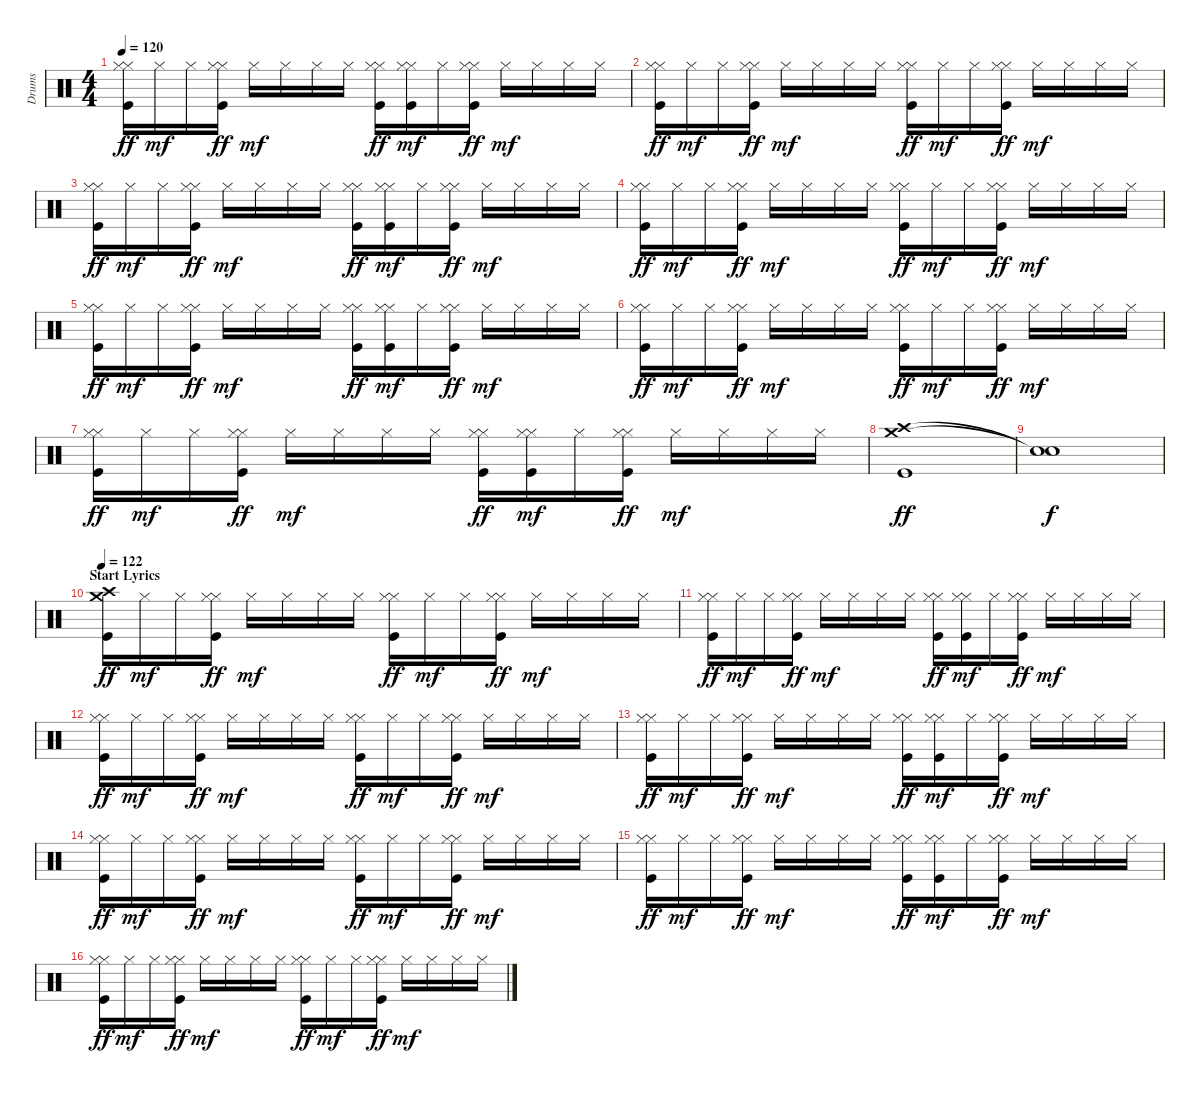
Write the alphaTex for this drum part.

\track ("Drums" "Drums") {instrument percussion}
\staff {score}
\articulation defaults
\ts (4 4)
\tempo 120
\clef neutral
\ks c
("Hi-Hat (closed)" "Hi-Hat (closed)" "Kick (hit)").16{dy ff} "Hi-Hat (closed)".16{dy mf} "Hi-Hat (closed)".16 ("Hi-Hat (closed)" "Hi-Hat (closed)" "Kick (hit)").16{dy ff} "Hi-Hat (closed)".16{dy mf} "Hi-Hat (closed)".16 "Hi-Hat (closed)".16 "Hi-Hat (closed)".16 ("Hi-Hat (closed)" "Hi-Hat (closed)" "Kick (hit)").16{dy ff} ("Hi-Hat (closed)" "Hi-Hat (closed)" "Kick (hit)").16{dy mf} "Hi-Hat (closed)".16 ("Hi-Hat (closed)" "Hi-Hat (closed)" "Kick (hit)").16{dy ff} "Hi-Hat (closed)".16{dy mf} "Hi-Hat (closed)".16 "Hi-Hat (closed)".16 "Hi-Hat (closed)".16 |
("Hi-Hat (closed)" "Hi-Hat (closed)" "Kick (hit)").16{dy ff} "Hi-Hat (closed)".16{dy mf} "Hi-Hat (closed)".16 ("Hi-Hat (closed)" "Hi-Hat (closed)" "Kick (hit)").16{dy ff} "Hi-Hat (closed)".16{dy mf} "Hi-Hat (closed)".16 "Hi-Hat (closed)".16 "Hi-Hat (closed)".16 ("Hi-Hat (closed)" "Hi-Hat (closed)" "Kick (hit)").16{dy ff} "Hi-Hat (closed)".16{dy mf} "Hi-Hat (closed)".16 ("Hi-Hat (closed)" "Hi-Hat (closed)" "Kick (hit)").16{dy ff} "Hi-Hat (closed)".16{dy mf} "Hi-Hat (closed)".16 "Hi-Hat (closed)".16 "Hi-Hat (closed)".16 |
("Hi-Hat (closed)" "Hi-Hat (closed)" "Kick (hit)").16{dy ff} "Hi-Hat (closed)".16{dy mf} "Hi-Hat (closed)".16 ("Hi-Hat (closed)" "Hi-Hat (closed)" "Kick (hit)").16{dy ff} "Hi-Hat (closed)".16{dy mf} "Hi-Hat (closed)".16 "Hi-Hat (closed)".16 "Hi-Hat (closed)".16 ("Hi-Hat (closed)" "Hi-Hat (closed)" "Kick (hit)").16{dy ff} ("Hi-Hat (closed)" "Hi-Hat (closed)" "Kick (hit)").16{dy mf} "Hi-Hat (closed)".16 ("Hi-Hat (closed)" "Hi-Hat (closed)" "Kick (hit)").16{dy ff} "Hi-Hat (closed)".16{dy mf} "Hi-Hat (closed)".16 "Hi-Hat (closed)".16 "Hi-Hat (closed)".16 |
("Hi-Hat (closed)" "Hi-Hat (closed)" "Kick (hit)").16{dy ff} "Hi-Hat (closed)".16{dy mf} "Hi-Hat (closed)".16 ("Hi-Hat (closed)" "Hi-Hat (closed)" "Kick (hit)").16{dy ff} "Hi-Hat (closed)".16{dy mf} "Hi-Hat (closed)".16 "Hi-Hat (closed)".16 "Hi-Hat (closed)".16 ("Hi-Hat (closed)" "Hi-Hat (closed)" "Kick (hit)").16{dy ff} "Hi-Hat (closed)".16{dy mf} "Hi-Hat (closed)".16 ("Hi-Hat (closed)" "Hi-Hat (closed)" "Kick (hit)").16{dy ff} "Hi-Hat (closed)".16{dy mf} "Hi-Hat (closed)".16 "Hi-Hat (closed)".16 "Hi-Hat (closed)".16 |
("Hi-Hat (closed)" "Hi-Hat (closed)" "Kick (hit)").16{dy ff} "Hi-Hat (closed)".16{dy mf} "Hi-Hat (closed)".16 ("Hi-Hat (closed)" "Hi-Hat (closed)" "Kick (hit)").16{dy ff} "Hi-Hat (closed)".16{dy mf} "Hi-Hat (closed)".16 "Hi-Hat (closed)".16 "Hi-Hat (closed)".16 ("Hi-Hat (closed)" "Hi-Hat (closed)" "Kick (hit)").16{dy ff} ("Hi-Hat (closed)" "Hi-Hat (closed)" "Kick (hit)").16{dy mf} "Hi-Hat (closed)".16 ("Hi-Hat (closed)" "Hi-Hat (closed)" "Kick (hit)").16{dy ff} "Hi-Hat (closed)".16{dy mf} "Hi-Hat (closed)".16 "Hi-Hat (closed)".16 "Hi-Hat (closed)".16 |
("Hi-Hat (closed)" "Hi-Hat (closed)" "Kick (hit)").16{dy ff} "Hi-Hat (closed)".16{dy mf} "Hi-Hat (closed)".16 ("Hi-Hat (closed)" "Hi-Hat (closed)" "Kick (hit)").16{dy ff} "Hi-Hat (closed)".16{dy mf} "Hi-Hat (closed)".16 "Hi-Hat (closed)".16 "Hi-Hat (closed)".16 ("Hi-Hat (closed)" "Hi-Hat (closed)" "Kick (hit)").16{dy ff} "Hi-Hat (closed)".16{dy mf} "Hi-Hat (closed)".16 ("Hi-Hat (closed)" "Hi-Hat (closed)" "Kick (hit)").16{dy ff} "Hi-Hat (closed)".16{dy mf} "Hi-Hat (closed)".16 "Hi-Hat (closed)".16 "Hi-Hat (closed)".16 |
("Hi-Hat (closed)" "Hi-Hat (closed)" "Kick (hit)").16{dy ff} "Hi-Hat (closed)".16{dy mf} "Hi-Hat (closed)".16 ("Hi-Hat (closed)" "Hi-Hat (closed)" "Kick (hit)").16{dy ff} "Hi-Hat (closed)".16{dy mf} "Hi-Hat (closed)".16 "Hi-Hat (closed)".16 "Hi-Hat (closed)".16 ("Hi-Hat (closed)" "Hi-Hat (closed)" "Kick (hit)").16{dy ff} ("Hi-Hat (closed)" "Hi-Hat (closed)" "Kick (hit)").16{dy mf} "Hi-Hat (closed)".16 ("Hi-Hat (closed)" "Hi-Hat (closed)" "Kick (hit)").16{dy ff} "Hi-Hat (closed)".16{dy mf} "Hi-Hat (closed)".16 "Hi-Hat (closed)".16 "Hi-Hat (closed)".16 |
("Crash high (hit)" "Crash medium (hit)" "Kick (hit)").1{dy ff} |
("Snare (hit)"{t} "Snare (hit)"{t}).1{dy f} |
\section ("" "Start Lyrics")
\tempo 122
("Crash high (hit)" "Crash medium (hit)" "Kick (hit)").16{dy ff} "Hi-Hat (closed)".16{dy mf} "Hi-Hat (closed)".16 ("Hi-Hat (closed)" "Hi-Hat (closed)" "Kick (hit)").16{dy ff} "Hi-Hat (closed)".16{dy mf} "Hi-Hat (closed)".16 "Hi-Hat (closed)".16 "Hi-Hat (closed)".16 ("Hi-Hat (closed)" "Hi-Hat (closed)" "Kick (hit)").16{dy ff} "Hi-Hat (closed)".16{dy mf} "Hi-Hat (closed)".16 ("Hi-Hat (closed)" "Hi-Hat (closed)" "Kick (hit)").16{dy ff} "Hi-Hat (closed)".16{dy mf} "Hi-Hat (closed)".16 "Hi-Hat (closed)".16 "Hi-Hat (closed)".16 |
("Hi-Hat (closed)" "Hi-Hat (closed)" "Kick (hit)").16{dy ff} "Hi-Hat (closed)".16{dy mf} "Hi-Hat (closed)".16 ("Hi-Hat (closed)" "Hi-Hat (closed)" "Kick (hit)").16{dy ff} "Hi-Hat (closed)".16{dy mf} "Hi-Hat (closed)".16 "Hi-Hat (closed)".16 "Hi-Hat (closed)".16 ("Hi-Hat (closed)" "Hi-Hat (closed)" "Kick (hit)").16{dy ff} ("Hi-Hat (closed)" "Hi-Hat (closed)" "Kick (hit)").16{dy mf} "Hi-Hat (closed)".16 ("Hi-Hat (closed)" "Hi-Hat (closed)" "Kick (hit)").16{dy ff} "Hi-Hat (closed)".16{dy mf} "Hi-Hat (closed)".16 "Hi-Hat (closed)".16 "Hi-Hat (closed)".16 |
("Hi-Hat (closed)" "Hi-Hat (closed)" "Kick (hit)").16{dy ff} "Hi-Hat (closed)".16{dy mf} "Hi-Hat (closed)".16 ("Hi-Hat (closed)" "Hi-Hat (closed)" "Kick (hit)").16{dy ff} "Hi-Hat (closed)".16{dy mf} "Hi-Hat (closed)".16 "Hi-Hat (closed)".16 "Hi-Hat (closed)".16 ("Hi-Hat (closed)" "Hi-Hat (closed)" "Kick (hit)").16{dy ff} "Hi-Hat (closed)".16{dy mf} "Hi-Hat (closed)".16 ("Hi-Hat (closed)" "Hi-Hat (closed)" "Kick (hit)").16{dy ff} "Hi-Hat (closed)".16{dy mf} "Hi-Hat (closed)".16 "Hi-Hat (closed)".16 "Hi-Hat (closed)".16 |
("Hi-Hat (closed)" "Hi-Hat (closed)" "Kick (hit)").16{dy ff} "Hi-Hat (closed)".16{dy mf} "Hi-Hat (closed)".16 ("Hi-Hat (closed)" "Hi-Hat (closed)" "Kick (hit)").16{dy ff} "Hi-Hat (closed)".16{dy mf} "Hi-Hat (closed)".16 "Hi-Hat (closed)".16 "Hi-Hat (closed)".16 ("Hi-Hat (closed)" "Hi-Hat (closed)" "Kick (hit)").16{dy ff} ("Hi-Hat (closed)" "Hi-Hat (closed)" "Kick (hit)").16{dy mf} "Hi-Hat (closed)".16 ("Hi-Hat (closed)" "Hi-Hat (closed)" "Kick (hit)").16{dy ff} "Hi-Hat (closed)".16{dy mf} "Hi-Hat (closed)".16 "Hi-Hat (closed)".16 "Hi-Hat (closed)".16 |
("Hi-Hat (closed)" "Hi-Hat (closed)" "Kick (hit)").16{dy ff} "Hi-Hat (closed)".16{dy mf} "Hi-Hat (closed)".16 ("Hi-Hat (closed)" "Hi-Hat (closed)" "Kick (hit)").16{dy ff} "Hi-Hat (closed)".16{dy mf} "Hi-Hat (closed)".16 "Hi-Hat (closed)".16 "Hi-Hat (closed)".16 ("Hi-Hat (closed)" "Hi-Hat (closed)" "Kick (hit)").16{dy ff} "Hi-Hat (closed)".16{dy mf} "Hi-Hat (closed)".16 ("Hi-Hat (closed)" "Hi-Hat (closed)" "Kick (hit)").16{dy ff} "Hi-Hat (closed)".16{dy mf} "Hi-Hat (closed)".16 "Hi-Hat (closed)".16 "Hi-Hat (closed)".16 |
("Hi-Hat (closed)" "Hi-Hat (closed)" "Kick (hit)").16{dy ff} "Hi-Hat (closed)".16{dy mf} "Hi-Hat (closed)".16 ("Hi-Hat (closed)" "Hi-Hat (closed)" "Kick (hit)").16{dy ff} "Hi-Hat (closed)".16{dy mf} "Hi-Hat (closed)".16 "Hi-Hat (closed)".16 "Hi-Hat (closed)".16 ("Hi-Hat (closed)" "Hi-Hat (closed)" "Kick (hit)").16{dy ff} ("Hi-Hat (closed)" "Hi-Hat (closed)" "Kick (hit)").16{dy mf} "Hi-Hat (closed)".16 ("Hi-Hat (closed)" "Hi-Hat (closed)" "Kick (hit)").16{dy ff} "Hi-Hat (closed)".16{dy mf} "Hi-Hat (closed)".16 "Hi-Hat (closed)".16 "Hi-Hat (closed)".16 |
("Hi-Hat (closed)" "Hi-Hat (closed)" "Kick (hit)").16{dy ff} "Hi-Hat (closed)".16{dy mf} "Hi-Hat (closed)".16 ("Hi-Hat (closed)" "Hi-Hat (closed)" "Kick (hit)").16{dy ff} "Hi-Hat (closed)".16{dy mf} "Hi-Hat (closed)".16 "Hi-Hat (closed)".16 "Hi-Hat (closed)".16 ("Hi-Hat (closed)" "Hi-Hat (closed)" "Kick (hit)").16{dy ff} "Hi-Hat (closed)".16{dy mf} "Hi-Hat (closed)".16 ("Hi-Hat (closed)" "Hi-Hat (closed)" "Kick (hit)").16{dy ff} "Hi-Hat (closed)".16{dy mf} "Hi-Hat (closed)".16 "Hi-Hat (closed)".16 "Hi-Hat (closed)".16
